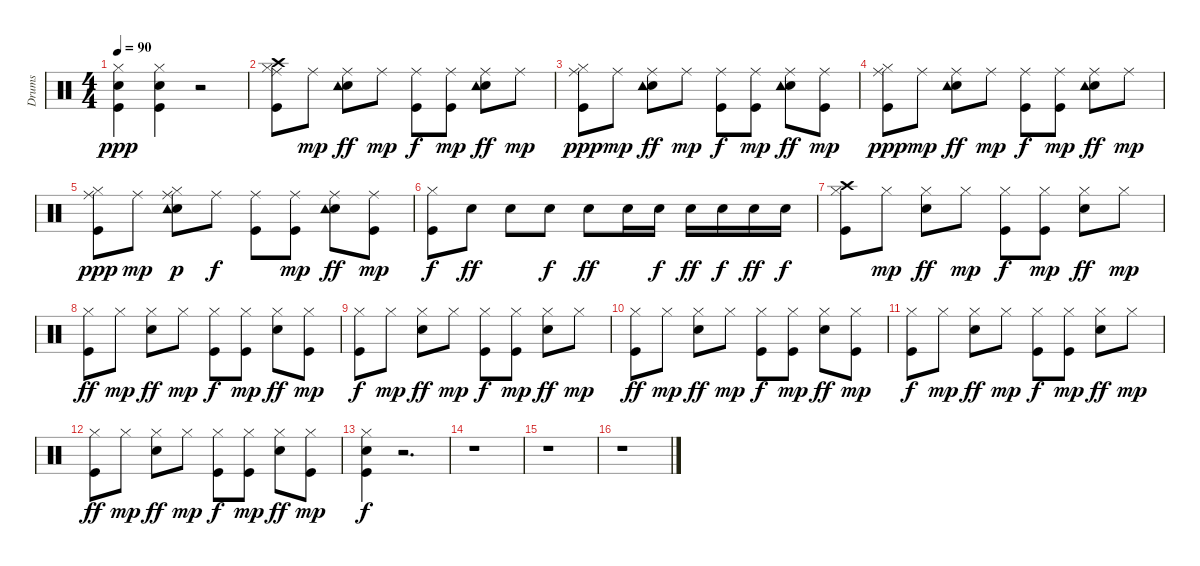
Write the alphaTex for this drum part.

\track ("Drums" "Drums") {instrument percussion}
\staff {score}
\articulation defaults
\ts (4 4)
\tempo 90
\clef neutral
\ks c
("Kick (hit)" "Snare (hit) 2" "Hi-Hat (closed)").4{dy ppp} ("Kick (hit)" "Snare (hit) 2" "Hi-Hat (closed)").4 r.2 |
("Kick (hit)" "Hi-Hat (closed)" "Crash high (hit)" "Ride (middle)").8 "Ride (middle)".8{dy mp} ("Snare (hit) 2" "Tambourine (hit)" "Ride (middle)").8{dy ff} "Ride (middle)".8{dy mp} ("Kick (hit)" "Ride (middle)").8{dy f} ("Kick (hit)" "Ride (middle)").8{dy mp} ("Snare (hit) 2" "Tambourine (hit)" "Ride (middle)").8{dy ff} "Ride (middle)".8{dy mp} |
("Kick (hit)" "Hi-Hat (closed)" "Ride (middle)").8{dy ppp} "Ride (middle)".8{dy mp} ("Snare (hit) 2" "Tambourine (hit)" "Ride (middle)").8{dy ff} "Ride (middle)".8{dy mp} ("Kick (hit)" "Ride (middle)").8{dy f} ("Kick (hit)" "Ride (middle)").8{dy mp} ("Snare (hit) 2" "Tambourine (hit)" "Ride (middle)").8{dy ff} ("Kick (hit)" "Ride (middle)").8{dy mp} |
("Kick (hit)" "Hi-Hat (closed)" "Ride (middle)").8{dy ppp} "Ride (middle)".8{dy mp} ("Snare (hit) 2" "Tambourine (hit)" "Ride (middle)").8{dy ff} "Ride (middle)".8{dy mp} ("Kick (hit)" "Ride (middle)").8{dy f} ("Kick (hit)" "Ride (middle)").8{dy mp} ("Snare (hit) 2" "Tambourine (hit)" "Ride (middle)").8{dy ff} "Ride (middle)".8{dy mp} |
("Kick (hit)" "Hi-Hat (closed)" "Ride (middle)").8{dy ppp} "Ride (middle)".8{dy mp} ("Snare (hit) 2" "Hi-Hat (closed)" "Tambourine (hit)" "Ride (middle)").8{dy p} "Ride (middle)".8{dy f} ("Kick (hit)" "Ride (middle)").8 ("Kick (hit)" "Ride (middle)").8{dy mp} ("Snare (hit) 2" "Tambourine (hit)" "Ride (middle)").8{dy ff} ("Kick (hit)" "Ride (middle)").8{dy mp} |
("Kick (hit)" "Hi-Hat (closed)").8{dy f} "Snare (hit) 2".8{dy ff} "Snare (hit) 2".8 "Snare (hit) 2".8{dy f} "Snare (hit) 2".8{dy ff} "Snare (hit) 2".16 "Snare (hit) 2".16{dy f} "Snare (hit) 2".16{dy ff} "Snare (hit) 2".16{dy f} "Snare (hit) 2".16{dy ff} "Snare (hit) 2".16{dy f} |
("Kick (hit)" "Hi-Hat (closed)" "Crash high (hit)").8 "Hi-Hat (closed)".8{dy mp} ("Snare (hit) 2" "Hi-Hat (closed)").8{dy ff} "Hi-Hat (closed)".8{dy mp} ("Kick (hit)" "Hi-Hat (closed)").8{dy f} ("Kick (hit)" "Hi-Hat (closed)").8{dy mp} ("Snare (hit) 2" "Hi-Hat (closed)").8{dy ff} "Hi-Hat (closed)".8{dy mp} |
("Kick (hit)" "Hi-Hat (closed)").8{dy ff} "Hi-Hat (closed)".8{dy mp} ("Snare (hit) 2" "Hi-Hat (closed)").8{dy ff} "Hi-Hat (closed)".8{dy mp} ("Kick (hit)" "Hi-Hat (closed)").8{dy f} ("Kick (hit)" "Hi-Hat (closed)").8{dy mp} ("Snare (hit) 2" "Hi-Hat (closed)").8{dy ff} ("Kick (hit)" "Hi-Hat (closed)").8{dy mp} |
("Kick (hit)" "Hi-Hat (closed)").8{dy f} "Hi-Hat (closed)".8{dy mp} ("Snare (hit) 2" "Hi-Hat (closed)").8{dy ff} "Hi-Hat (closed)".8{dy mp} ("Kick (hit)" "Hi-Hat (closed)").8{dy f} ("Kick (hit)" "Hi-Hat (closed)").8{dy mp} ("Snare (hit) 2" "Hi-Hat (closed)").8{dy ff} "Hi-Hat (closed)".8{dy mp} |
("Kick (hit)" "Hi-Hat (closed)").8{dy ff} "Hi-Hat (closed)".8{dy mp} ("Snare (hit) 2" "Hi-Hat (closed)").8{dy ff} "Hi-Hat (closed)".8{dy mp} ("Kick (hit)" "Hi-Hat (closed)").8{dy f} ("Kick (hit)" "Hi-Hat (closed)").8{dy mp} ("Snare (hit) 2" "Hi-Hat (closed)").8{dy ff} ("Kick (hit)" "Hi-Hat (closed)").8{dy mp} |
("Kick (hit)" "Hi-Hat (closed)").8{dy f} "Hi-Hat (closed)".8{dy mp} ("Snare (hit) 2" "Hi-Hat (closed)").8{dy ff} "Hi-Hat (closed)".8{dy mp} ("Kick (hit)" "Hi-Hat (closed)").8{dy f} ("Kick (hit)" "Hi-Hat (closed)").8{dy mp} ("Snare (hit) 2" "Hi-Hat (closed)").8{dy ff} "Hi-Hat (closed)".8{dy mp} |
("Kick (hit)" "Hi-Hat (closed)").8{dy ff} "Hi-Hat (closed)".8{dy mp} ("Snare (hit) 2" "Hi-Hat (closed)").8{dy ff} "Hi-Hat (closed)".8{dy mp} ("Kick (hit)" "Hi-Hat (closed)").8{dy f} ("Kick (hit)" "Hi-Hat (closed)").8{dy mp} ("Snare (hit) 2" "Hi-Hat (closed)").8{dy ff} ("Kick (hit)" "Hi-Hat (closed)").8{dy mp} |
("Kick (hit)" "Snare (hit) 2" "Hi-Hat (closed)").4{dy f} r.2{d} |
r.1 |
r.1 |
r.1
